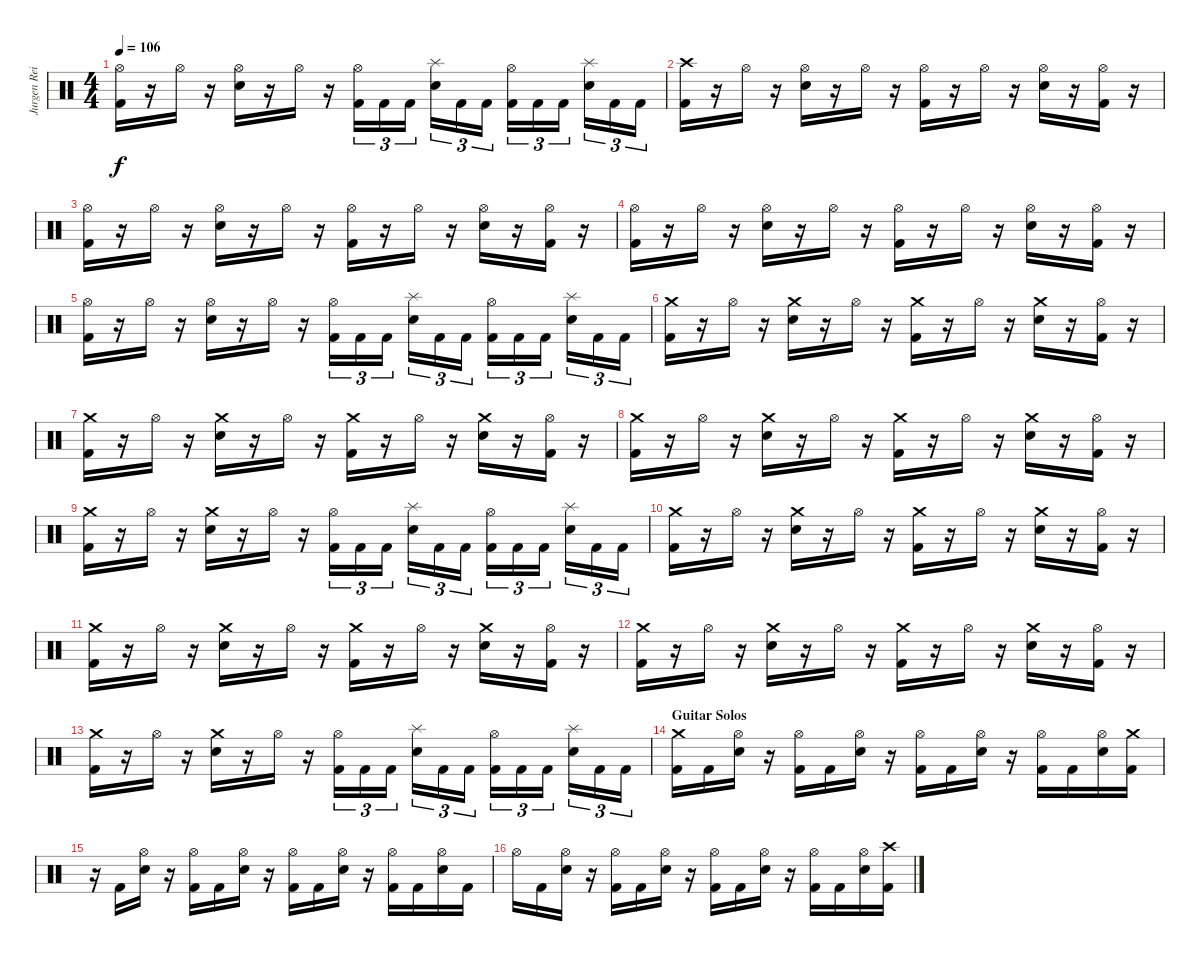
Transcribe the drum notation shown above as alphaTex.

\track ("Jurgen Reil" "Jurgen Rei") {instrument percussion}
\staff {score}
\articulation defaults
\ts (4 4)
\tempo 106
\clef neutral
\ks c
("Hi-Hat (open)" "Kick (hit) 2").16{dy f} r.16 "Hi-Hat (open)".16 r.16 ("Hi-Hat (open)" "Snare (hit) 2").16 r.16 "Hi-Hat (open)".16 r.16 ("Hi-Hat (open)" "Kick (hit) 2").16{tu (3 2)} "Kick (hit) 2".16{tu (3 2)} "Kick (hit) 2".16{tu (3 2)} ("Splash (hit)" "Snare (hit) 2").16{tu (3 2)} "Kick (hit) 2".16{tu (3 2)} "Kick (hit) 2".16{tu (3 2)} ("Hi-Hat (open)" "Kick (hit) 2").16{tu (3 2)} "Kick (hit) 2".16{tu (3 2)} "Kick (hit) 2".16{tu (3 2)} ("Splash (hit)" "Snare (hit) 2").16{tu (3 2)} "Kick (hit) 2".16{tu (3 2)} "Kick (hit) 2".16{tu (3 2)} |
("Crash high (hit)" "Kick (hit) 2").16 r.16 "Hi-Hat (open)".16 r.16 ("Hi-Hat (open)" "Snare (hit) 2").16 r.16 "Hi-Hat (open)".16 r.16 ("Hi-Hat (open)" "Kick (hit) 2").16 r.16 "Hi-Hat (open)".16 r.16 ("Hi-Hat (open)" "Snare (hit) 2").16 r.16 ("Hi-Hat (open)" "Kick (hit) 2").16 r.16 |
("Hi-Hat (open)" "Kick (hit) 2").16 r.16 "Hi-Hat (open)".16 r.16 ("Hi-Hat (open)" "Snare (hit) 2").16 r.16 "Hi-Hat (open)".16 r.16 ("Hi-Hat (open)" "Kick (hit) 2").16 r.16 "Hi-Hat (open)".16 r.16 ("Hi-Hat (open)" "Snare (hit) 2").16 r.16 ("Hi-Hat (open)" "Kick (hit) 2").16 r.16 |
("Hi-Hat (open)" "Kick (hit) 2").16 r.16 "Hi-Hat (open)".16 r.16 ("Hi-Hat (open)" "Snare (hit) 2").16 r.16 "Hi-Hat (open)".16 r.16 ("Hi-Hat (open)" "Kick (hit) 2").16 r.16 "Hi-Hat (open)".16 r.16 ("Hi-Hat (open)" "Snare (hit) 2").16 r.16 ("Hi-Hat (open)" "Kick (hit) 2").16 r.16 |
("Hi-Hat (open)" "Kick (hit) 2").16 r.16 "Hi-Hat (open)".16 r.16 ("Hi-Hat (open)" "Snare (hit) 2").16 r.16 "Hi-Hat (open)".16 r.16 ("Hi-Hat (open)" "Kick (hit) 2").16{tu (3 2)} "Kick (hit) 2".16{tu (3 2)} "Kick (hit) 2".16{tu (3 2)} ("Splash (hit)" "Snare (hit) 2").16{tu (3 2)} "Kick (hit) 2".16{tu (3 2)} "Kick (hit) 2".16{tu (3 2)} ("Hi-Hat (open)" "Kick (hit) 2").16{tu (3 2)} "Kick (hit) 2".16{tu (3 2)} "Kick (hit) 2".16{tu (3 2)} ("Splash (hit)" "Snare (hit) 2").16{tu (3 2)} "Kick (hit) 2".16{tu (3 2)} "Kick (hit) 2".16{tu (3 2)} |
("Crash medium (hit)" "Kick (hit) 2").16 r.16 "Hi-Hat (open)".16 r.16 ("Crash medium (hit)" "Snare (hit) 2").16 r.16 "Hi-Hat (open)".16 r.16 ("Crash medium (hit)" "Kick (hit) 2").16 r.16 "Hi-Hat (open)".16 r.16 ("Crash medium (hit)" "Snare (hit) 2").16 r.16 ("Hi-Hat (open)" "Kick (hit) 2").16 r.16 |
("Crash medium (hit)" "Kick (hit) 2").16 r.16 "Hi-Hat (open)".16 r.16 ("Crash medium (hit)" "Snare (hit) 2").16 r.16 "Hi-Hat (open)".16 r.16 ("Crash medium (hit)" "Kick (hit) 2").16 r.16 "Hi-Hat (open)".16 r.16 ("Crash medium (hit)" "Snare (hit) 2").16 r.16 ("Hi-Hat (open)" "Kick (hit) 2").16 r.16 |
("Crash medium (hit)" "Kick (hit) 2").16 r.16 "Hi-Hat (open)".16 r.16 ("Crash medium (hit)" "Snare (hit) 2").16 r.16 "Hi-Hat (open)".16 r.16 ("Crash medium (hit)" "Kick (hit) 2").16 r.16 "Hi-Hat (open)".16 r.16 ("Crash medium (hit)" "Snare (hit) 2").16 r.16 ("Hi-Hat (open)" "Kick (hit) 2").16 r.16 |
("Crash medium (hit)" "Kick (hit) 2").16 r.16 "Hi-Hat (open)".16 r.16 ("Crash medium (hit)" "Snare (hit) 2").16 r.16 "Hi-Hat (open)".16 r.16 ("Hi-Hat (open)" "Kick (hit) 2").16{tu (3 2)} "Kick (hit) 2".16{tu (3 2)} "Kick (hit) 2".16{tu (3 2)} ("Splash (hit)" "Snare (hit) 2").16{tu (3 2)} "Kick (hit) 2".16{tu (3 2)} "Kick (hit) 2".16{tu (3 2)} ("Hi-Hat (open)" "Kick (hit) 2").16{tu (3 2)} "Kick (hit) 2".16{tu (3 2)} "Kick (hit) 2".16{tu (3 2)} ("Splash (hit)" "Snare (hit) 2").16{tu (3 2)} "Kick (hit) 2".16{tu (3 2)} "Kick (hit) 2".16{tu (3 2)} |
("Crash medium (hit)" "Kick (hit) 2").16 r.16 "Hi-Hat (open)".16 r.16 ("Crash medium (hit)" "Snare (hit) 2").16 r.16 "Hi-Hat (open)".16 r.16 ("Crash medium (hit)" "Kick (hit) 2").16 r.16 "Hi-Hat (open)".16 r.16 ("Crash medium (hit)" "Snare (hit) 2").16 r.16 ("Hi-Hat (open)" "Kick (hit) 2").16 r.16 |
("Crash medium (hit)" "Kick (hit) 2").16 r.16 "Hi-Hat (open)".16 r.16 ("Crash medium (hit)" "Snare (hit) 2").16 r.16 "Hi-Hat (open)".16 r.16 ("Crash medium (hit)" "Kick (hit) 2").16 r.16 "Hi-Hat (open)".16 r.16 ("Crash medium (hit)" "Snare (hit) 2").16 r.16 ("Hi-Hat (open)" "Kick (hit) 2").16 r.16 |
("Crash medium (hit)" "Kick (hit) 2").16 r.16 "Hi-Hat (open)".16 r.16 ("Crash medium (hit)" "Snare (hit) 2").16 r.16 "Hi-Hat (open)".16 r.16 ("Crash medium (hit)" "Kick (hit) 2").16 r.16 "Hi-Hat (open)".16 r.16 ("Crash medium (hit)" "Snare (hit) 2").16 r.16 ("Hi-Hat (open)" "Kick (hit) 2").16 r.16 |
("Crash medium (hit)" "Kick (hit) 2").16 r.16 "Hi-Hat (open)".16 r.16 ("Crash medium (hit)" "Snare (hit) 2").16 r.16 "Hi-Hat (open)".16 r.16 ("Hi-Hat (open)" "Kick (hit) 2").16{tu (3 2)} "Kick (hit) 2".16{tu (3 2)} "Kick (hit) 2".16{tu (3 2)} ("Splash (hit)" "Snare (hit) 2").16{tu (3 2)} "Kick (hit) 2".16{tu (3 2)} "Kick (hit) 2".16{tu (3 2)} ("Hi-Hat (open)" "Kick (hit) 2").16{tu (3 2)} "Kick (hit) 2".16{tu (3 2)} "Kick (hit) 2".16{tu (3 2)} ("Splash (hit)" "Snare (hit) 2").16{tu (3 2)} "Kick (hit) 2".16{tu (3 2)} "Kick (hit) 2".16{tu (3 2)} |
\section ("" "Guitar Solos")
("Crash medium (hit)" "Kick (hit) 2").16 "Kick (hit) 2".16 ("Hi-Hat (open)" "Snare (hit) 2").16 r.16 ("Hi-Hat (open)" "Kick (hit) 2").16 "Kick (hit) 2".16 ("Hi-Hat (open)" "Snare (hit) 2").16 r.16 ("Hi-Hat (open)" "Kick (hit) 2").16 "Kick (hit) 2".16 ("Hi-Hat (open)" "Snare (hit) 2").16 r.16 ("Hi-Hat (open)" "Kick (hit) 2").16 "Kick (hit) 2".16 ("Hi-Hat (open)" "Snare (hit) 2").16 ("Crash medium (hit)" "Kick (hit) 2").16 |
r.16 "Kick (hit) 2".16 ("Hi-Hat (open)" "Snare (hit) 2").16 r.16 ("Hi-Hat (open)" "Kick (hit) 2").16 "Kick (hit) 2".16 ("Hi-Hat (open)" "Snare (hit) 2").16 r.16 ("Hi-Hat (open)" "Kick (hit) 2").16 "Kick (hit) 2".16 ("Hi-Hat (open)" "Snare (hit) 2").16 r.16 ("Hi-Hat (open)" "Kick (hit) 2").16 "Kick (hit) 2".16 ("Hi-Hat (open)" "Snare (hit) 2").16 "Kick (hit) 2".16 |
"Hi-Hat (open)".16 "Kick (hit) 2".16 ("Hi-Hat (open)" "Snare (hit) 2").16 r.16 ("Hi-Hat (open)" "Kick (hit) 2").16 "Kick (hit) 2".16 ("Hi-Hat (open)" "Snare (hit) 2").16 r.16 ("Hi-Hat (open)" "Kick (hit) 2").16 "Kick (hit) 2".16 ("Hi-Hat (open)" "Snare (hit) 2").16 r.16 ("Hi-Hat (open)" "Kick (hit) 2").16 "Kick (hit) 2".16 ("Hi-Hat (open)" "Snare (hit) 2").16 ("Crash high (hit)" "Kick (hit) 2").16
